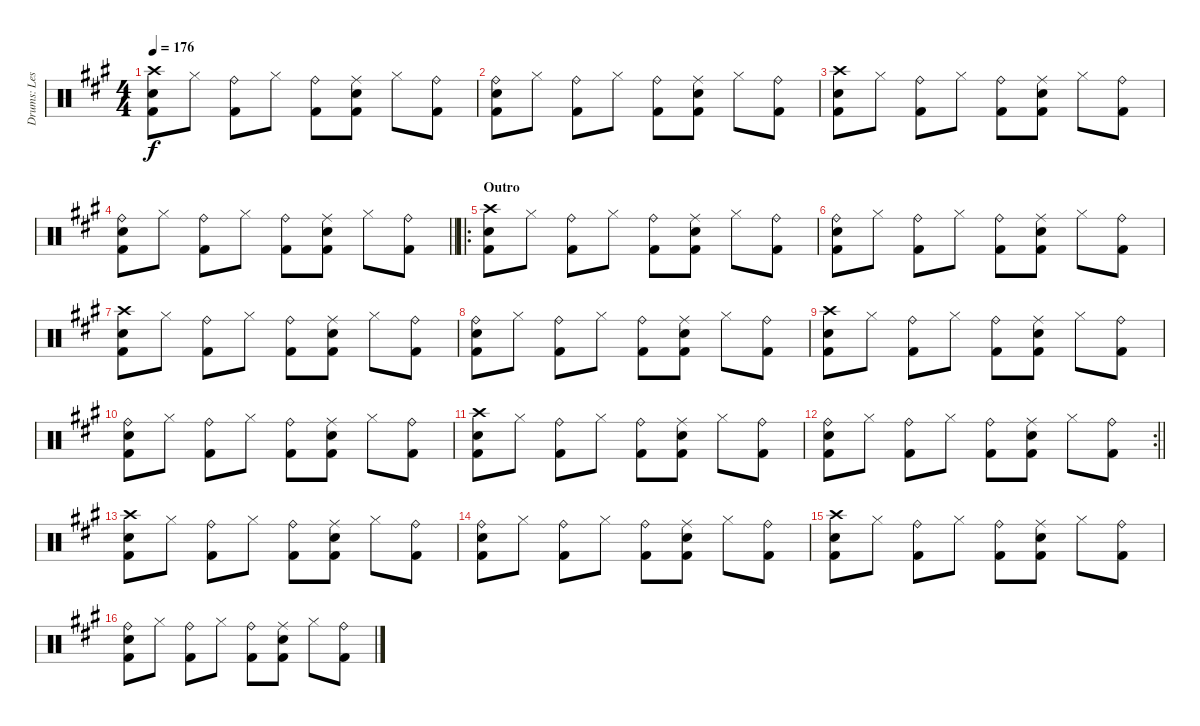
\track ("Drums: Les" "Drums: Les") {instrument percussion}
\staff {score}
\articulation defaults
\ts (4 4)
\tempo 176
\clef neutral
\ks a
("Crash high (hit)" "Snare (hit) 2" "Kick (hit) 2").8{dy f} "Hi-Hat (closed)".8 ("Ride (bell)" "Kick (hit) 2").8 "Hi-Hat (closed)".8 ("Ride (bell)" "Kick (hit) 2").8 ("Ride (middle)" "Snare (hit) 2" "Kick (hit) 2").8 "Hi-Hat (closed)".8 ("Ride (bell)" "Kick (hit) 2").8 |
("Ride (bell)" "Snare (hit) 2" "Kick (hit) 2").8 "Hi-Hat (closed)".8 ("Ride (bell)" "Kick (hit) 2").8 "Hi-Hat (closed)".8 ("Ride (bell)" "Kick (hit) 2").8 ("Ride (middle)" "Snare (hit) 2" "Kick (hit) 2").8 "Hi-Hat (closed)".8 ("Ride (bell)" "Kick (hit) 2").8 |
("Crash high (hit)" "Snare (hit) 2" "Kick (hit) 2").8 "Hi-Hat (closed)".8 ("Ride (bell)" "Kick (hit) 2").8 "Hi-Hat (closed)".8 ("Ride (bell)" "Kick (hit) 2").8 ("Ride (middle)" "Snare (hit) 2" "Kick (hit) 2").8 "Hi-Hat (closed)".8 ("Ride (bell)" "Kick (hit) 2").8 |
\barLineRight lightlight
("Ride (bell)" "Snare (hit) 2" "Kick (hit) 2").8 "Hi-Hat (closed)".8 ("Ride (bell)" "Kick (hit) 2").8 "Hi-Hat (closed)".8 ("Ride (bell)" "Kick (hit) 2").8 ("Ride (middle)" "Snare (hit) 2" "Kick (hit) 2").8 "Hi-Hat (closed)".8 ("Ride (bell)" "Kick (hit) 2").8 |
\ro
\section ("" "Outro")
("Crash high (hit)" "Snare (hit) 2" "Kick (hit) 2").8 "Hi-Hat (closed)".8 ("Ride (bell)" "Kick (hit) 2").8 "Hi-Hat (closed)".8 ("Ride (bell)" "Kick (hit) 2").8 ("Ride (middle)" "Snare (hit) 2" "Kick (hit) 2").8 "Hi-Hat (closed)".8 ("Ride (bell)" "Kick (hit) 2").8 |
("Ride (bell)" "Snare (hit) 2" "Kick (hit) 2").8 "Hi-Hat (closed)".8 ("Ride (bell)" "Kick (hit) 2").8 "Hi-Hat (closed)".8 ("Ride (bell)" "Kick (hit) 2").8 ("Ride (middle)" "Snare (hit) 2" "Kick (hit) 2").8 "Hi-Hat (closed)".8 ("Ride (bell)" "Kick (hit) 2").8 |
("Crash high (hit)" "Snare (hit) 2" "Kick (hit) 2").8 "Hi-Hat (closed)".8 ("Ride (bell)" "Kick (hit) 2").8 "Hi-Hat (closed)".8 ("Ride (bell)" "Kick (hit) 2").8 ("Ride (middle)" "Snare (hit) 2" "Kick (hit) 2").8 "Hi-Hat (closed)".8 ("Ride (bell)" "Kick (hit) 2").8 |
("Ride (bell)" "Snare (hit) 2" "Kick (hit) 2").8 "Hi-Hat (closed)".8 ("Ride (bell)" "Kick (hit) 2").8 "Hi-Hat (closed)".8 ("Ride (bell)" "Kick (hit) 2").8 ("Ride (middle)" "Snare (hit) 2" "Kick (hit) 2").8 "Hi-Hat (closed)".8 ("Ride (bell)" "Kick (hit) 2").8 |
("Crash high (hit)" "Snare (hit) 2" "Kick (hit) 2").8 "Hi-Hat (closed)".8 ("Ride (bell)" "Kick (hit) 2").8 "Hi-Hat (closed)".8 ("Ride (bell)" "Kick (hit) 2").8 ("Ride (middle)" "Snare (hit) 2" "Kick (hit) 2").8 "Hi-Hat (closed)".8 ("Ride (bell)" "Kick (hit) 2").8 |
("Ride (bell)" "Snare (hit) 2" "Kick (hit) 2").8 "Hi-Hat (closed)".8 ("Ride (bell)" "Kick (hit) 2").8 "Hi-Hat (closed)".8 ("Ride (bell)" "Kick (hit) 2").8 ("Ride (middle)" "Snare (hit) 2" "Kick (hit) 2").8 "Hi-Hat (closed)".8 ("Ride (bell)" "Kick (hit) 2").8 |
("Crash high (hit)" "Snare (hit) 2" "Kick (hit) 2").8 "Hi-Hat (closed)".8 ("Ride (bell)" "Kick (hit) 2").8 "Hi-Hat (closed)".8 ("Ride (bell)" "Kick (hit) 2").8 ("Ride (middle)" "Snare (hit) 2" "Kick (hit) 2").8 "Hi-Hat (closed)".8 ("Ride (bell)" "Kick (hit) 2").8 |
\rc 2
\barLineRight lightlight
("Ride (bell)" "Snare (hit) 2" "Kick (hit) 2").8 "Hi-Hat (closed)".8 ("Ride (bell)" "Kick (hit) 2").8 "Hi-Hat (closed)".8 ("Ride (bell)" "Kick (hit) 2").8 ("Ride (middle)" "Snare (hit) 2" "Kick (hit) 2").8 "Hi-Hat (closed)".8 ("Ride (bell)" "Kick (hit) 2").8 |
("Crash high (hit)" "Snare (hit) 2" "Kick (hit) 2").8 "Hi-Hat (closed)".8 ("Ride (bell)" "Kick (hit) 2").8 "Hi-Hat (closed)".8 ("Ride (bell)" "Kick (hit) 2").8 ("Ride (middle)" "Snare (hit) 2" "Kick (hit) 2").8 "Hi-Hat (closed)".8 ("Ride (bell)" "Kick (hit) 2").8 |
("Ride (bell)" "Snare (hit) 2" "Kick (hit) 2").8 "Hi-Hat (closed)".8 ("Ride (bell)" "Kick (hit) 2").8 "Hi-Hat (closed)".8 ("Ride (bell)" "Kick (hit) 2").8 ("Ride (middle)" "Snare (hit) 2" "Kick (hit) 2").8 "Hi-Hat (closed)".8 ("Ride (bell)" "Kick (hit) 2").8 |
("Crash high (hit)" "Snare (hit) 2" "Kick (hit) 2").8 "Hi-Hat (closed)".8 ("Ride (bell)" "Kick (hit) 2").8 "Hi-Hat (closed)".8 ("Ride (bell)" "Kick (hit) 2").8 ("Ride (middle)" "Snare (hit) 2" "Kick (hit) 2").8 "Hi-Hat (closed)".8 ("Ride (bell)" "Kick (hit) 2").8 |
("Ride (bell)" "Snare (hit) 2" "Kick (hit) 2").8 "Hi-Hat (closed)".8 ("Ride (bell)" "Kick (hit) 2").8 "Hi-Hat (closed)".8 ("Ride (bell)" "Kick (hit) 2").8 ("Ride (middle)" "Snare (hit) 2" "Kick (hit) 2").8 "Hi-Hat (closed)".8 ("Ride (bell)" "Kick (hit) 2").8
